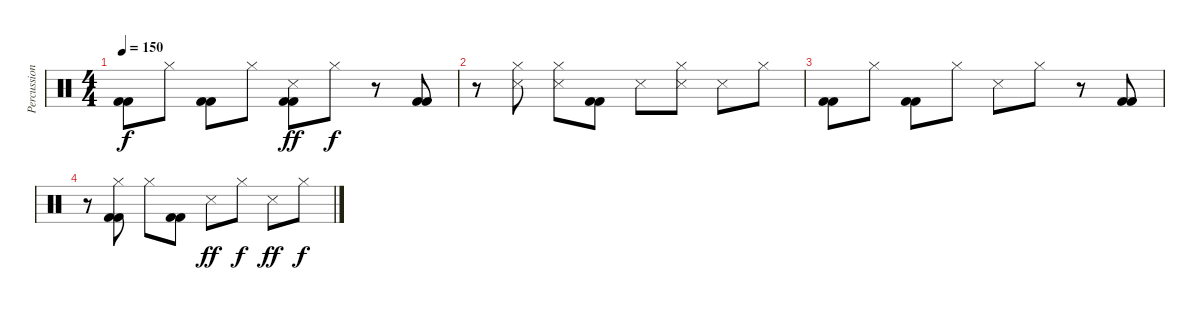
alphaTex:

\track ("Percussions" "Percussion") {instrument percussion}
\staff {score}
\articulation defaults
\ts (4 4)
\tempo 150
\clef neutral
\ks c
("Kick (hit) 2" "Kick (hit) 2").8{dy f} "Hi-Hat (closed)".8 ("Kick (hit) 2" "Kick (hit) 2").8 "Hi-Hat (closed)".8 ("Kick (hit) 2" "Kick (hit) 2" "Snare (side stick) 3").8{dy ff} "Hi-Hat (closed)".8{dy f} r.8 ("Kick (hit) 2" "Kick (hit) 2").8 |
r.8 ("Snare (side stick) 3" "Hi-Hat (closed)").8 ("Snare (side stick) 3" "Hi-Hat (closed)").8 ("Kick (hit) 2" "Kick (hit) 2").8 "Snare (side stick) 3".8 ("Snare (side stick) 3" "Hi-Hat (closed)").8 "Snare (side stick) 3".8 "Hi-Hat (closed)".8 |
("Kick (hit) 2" "Kick (hit) 2").8 "Hi-Hat (closed)".8 ("Kick (hit) 2" "Kick (hit) 2").8 "Hi-Hat (closed)".8 "Snare (side stick) 3".8 "Hi-Hat (closed)".8 r.8 ("Kick (hit) 2" "Kick (hit) 2").8 |
r.8 ("Kick (hit) 2" "Kick (hit) 2" "Hi-Hat (closed)").8 "Hi-Hat (closed)".8 ("Kick (hit) 2" "Kick (hit) 2").8 "Snare (side stick) 3".8{dy ff} "Hi-Hat (closed)".8{dy f} "Snare (side stick) 3".8{dy ff} "Hi-Hat (closed)".8{dy f}
